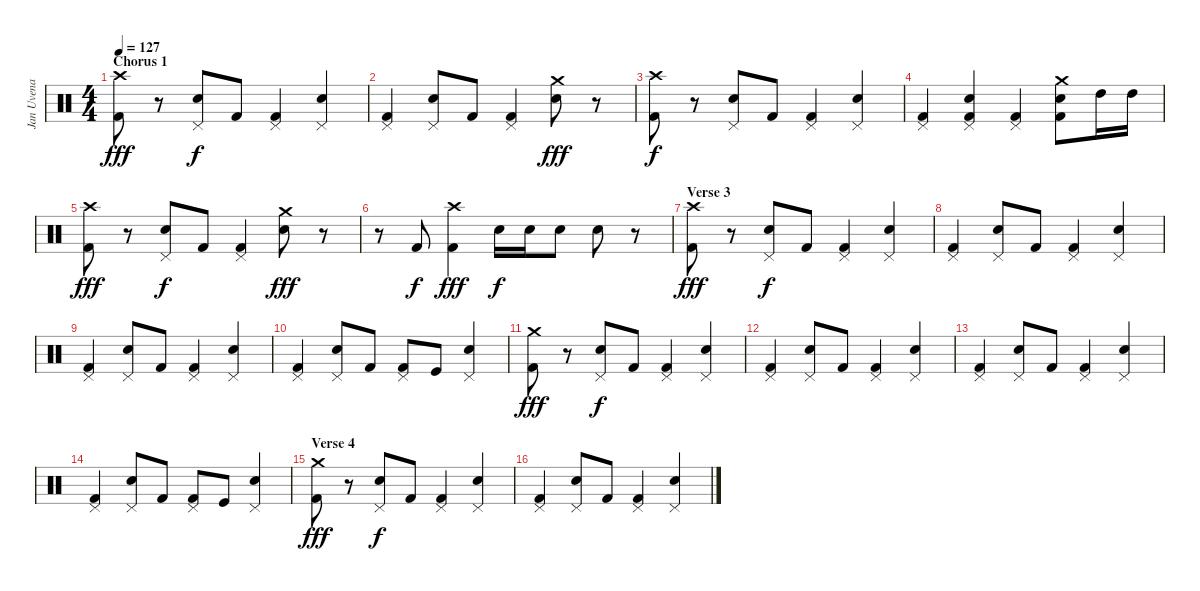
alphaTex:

\track ("Jan Uvena" "Jan Uvena") {instrument percussion}
\staff {score}
\articulation defaults
\ts (4 4)
\section ("" "Chorus 1")
\tempo 127
\clef neutral
\ks c
("Crash high (hit)" "Kick (hit) 2").8{dy fff} r.8 ("Pedal Hi-Hat (hit)" "Snare (hit) 2").8{dy f} "Kick (hit) 2".8 ("Pedal Hi-Hat (hit)" "Kick (hit) 2").4 ("Pedal Hi-Hat (hit)" "Snare (hit) 2").4 |
("Pedal Hi-Hat (hit)" "Kick (hit) 2").4 ("Pedal Hi-Hat (hit)" "Snare (hit) 2").8 "Kick (hit) 2".8 ("Pedal Hi-Hat (hit)" "Kick (hit) 2").4 ("Crash medium (hit)" "Snare (hit) 2").8{dy fff} r.8 |
("Crash high (hit)" "Kick (hit) 2").8{dy f} r.8 ("Pedal Hi-Hat (hit)" "Snare (hit) 2").8 "Kick (hit) 2".8 ("Pedal Hi-Hat (hit)" "Kick (hit) 2").4 ("Pedal Hi-Hat (hit)" "Snare (hit) 2").4 |
("Pedal Hi-Hat (hit)" "Kick (hit) 2").4 ("Pedal Hi-Hat (hit)" "Snare (hit) 2" "Kick (hit) 2").4 ("Pedal Hi-Hat (hit)" "Kick (hit) 2").4 ("Crash medium (hit)" "Snare (hit) 2" "Kick (hit) 2").8 "High Tom (hit)".16 "High Tom (hit)".16 |
("Crash high (hit)" "Kick (hit) 2").8{dy fff} r.8 ("Pedal Hi-Hat (hit)" "Snare (hit) 2").8{dy f} "Kick (hit) 2".8 ("Pedal Hi-Hat (hit)" "Kick (hit) 2").4 ("Crash medium (hit)" "Snare (hit) 2").8{dy fff} r.8 |
r.8 "Kick (hit) 2".8{dy f} ("Crash high (hit)" "Kick (hit) 2").4{dy fff} "Snare (hit) 2".16{dy f} "Snare (hit) 2".16 "Snare (hit) 2".8 "Snare (hit) 2".8 r.8 |
\section ("" "Verse 3")
("Crash high (hit)" "Kick (hit) 2").8{dy fff} r.8 ("Pedal Hi-Hat (hit)" "Snare (hit) 2").8{dy f} "Kick (hit) 2".8 ("Pedal Hi-Hat (hit)" "Kick (hit) 2").4 ("Pedal Hi-Hat (hit)" "Snare (hit) 2").4 |
("Pedal Hi-Hat (hit)" "Kick (hit) 2").4 ("Pedal Hi-Hat (hit)" "Snare (hit) 2").8 "Kick (hit) 2".8 ("Pedal Hi-Hat (hit)" "Kick (hit) 2").4 ("Pedal Hi-Hat (hit)" "Snare (hit) 2").4 |
("Pedal Hi-Hat (hit)" "Kick (hit) 2").4 ("Pedal Hi-Hat (hit)" "Snare (hit) 2").8 "Kick (hit) 2".8 ("Pedal Hi-Hat (hit)" "Kick (hit) 2").4 ("Pedal Hi-Hat (hit)" "Snare (hit) 2").4 |
("Pedal Hi-Hat (hit)" "Kick (hit) 2").4 ("Pedal Hi-Hat (hit)" "Snare (hit) 2").8 "Kick (hit) 2".8 ("Pedal Hi-Hat (hit)" "Kick (hit) 2").8 "Kick (hit)".8 ("Pedal Hi-Hat (hit)" "Snare (hit) 2").4 |
("Crash medium (hit)" "Kick (hit) 2").8{dy fff} r.8 ("Pedal Hi-Hat (hit)" "Snare (hit) 2").8{dy f} "Kick (hit) 2".8 ("Pedal Hi-Hat (hit)" "Kick (hit) 2").4 ("Pedal Hi-Hat (hit)" "Snare (hit) 2").4 |
("Pedal Hi-Hat (hit)" "Kick (hit) 2").4 ("Pedal Hi-Hat (hit)" "Snare (hit) 2").8 "Kick (hit) 2".8 ("Pedal Hi-Hat (hit)" "Kick (hit) 2").4 ("Pedal Hi-Hat (hit)" "Snare (hit) 2").4 |
("Pedal Hi-Hat (hit)" "Kick (hit) 2").4 ("Pedal Hi-Hat (hit)" "Snare (hit) 2").8 "Kick (hit) 2".8 ("Pedal Hi-Hat (hit)" "Kick (hit) 2").4 ("Pedal Hi-Hat (hit)" "Snare (hit) 2").4 |
("Pedal Hi-Hat (hit)" "Kick (hit) 2").4 ("Pedal Hi-Hat (hit)" "Snare (hit) 2").8 "Kick (hit) 2".8 ("Pedal Hi-Hat (hit)" "Kick (hit) 2").8 "Kick (hit)".8 ("Pedal Hi-Hat (hit)" "Snare (hit) 2").4 |
\section ("" "Verse 4")
("Crash medium (hit)" "Kick (hit) 2").8{dy fff} r.8 ("Pedal Hi-Hat (hit)" "Snare (hit) 2").8{dy f} "Kick (hit) 2".8 ("Pedal Hi-Hat (hit)" "Kick (hit) 2").4 ("Pedal Hi-Hat (hit)" "Snare (hit) 2").4 |
("Pedal Hi-Hat (hit)" "Kick (hit) 2").4 ("Pedal Hi-Hat (hit)" "Snare (hit) 2").8 "Kick (hit) 2".8 ("Pedal Hi-Hat (hit)" "Kick (hit) 2").4 ("Pedal Hi-Hat (hit)" "Snare (hit) 2").4
